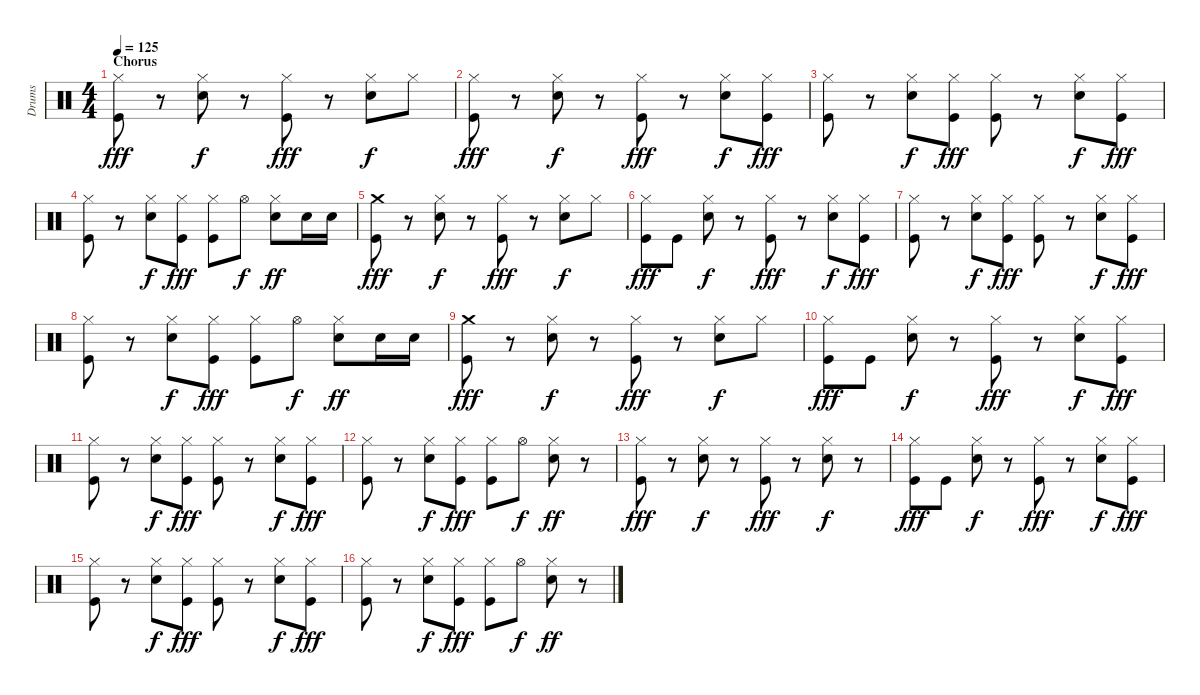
\track ("Drums" "Drums") {instrument percussion}
\staff {score}
\articulation defaults
\ts (4 4)
\section ("" "Chorus")
\tempo 125
\clef neutral
\ks c
("Hi-Hat (closed)" "Kick (hit)").8{dy fff} r.8 ("Hi-Hat (closed)" "Snare (hit) 2").8{dy f} r.8 ("Hi-Hat (closed)" "Kick (hit)").8{dy fff} r.8 ("Hi-Hat (closed)" "Snare (hit) 2").8{dy f} "Hi-Hat (closed)".8 |
("Hi-Hat (closed)" "Kick (hit)").8{dy fff} r.8 ("Hi-Hat (closed)" "Snare (hit) 2").8{dy f} r.8 ("Hi-Hat (closed)" "Kick (hit)").8{dy fff} r.8 ("Hi-Hat (closed)" "Snare (hit) 2").8{dy f} ("Hi-Hat (closed)" "Kick (hit)").8{dy fff} |
("Hi-Hat (closed)" "Kick (hit)").8 r.8 ("Hi-Hat (closed)" "Snare (hit) 2").8{dy f} ("Hi-Hat (closed)" "Kick (hit)").8{dy fff} ("Hi-Hat (closed)" "Kick (hit)").8 r.8 ("Hi-Hat (closed)" "Snare (hit) 2").8{dy f} ("Hi-Hat (closed)" "Kick (hit)").8{dy fff} |
("Hi-Hat (closed)" "Kick (hit)").8 r.8 ("Hi-Hat (closed)" "Snare (hit) 2").8{dy f} ("Hi-Hat (closed)" "Kick (hit)").8{dy fff} ("Hi-Hat (closed)" "Kick (hit)").8 "Hi-Hat (open)".8{dy f} ("Hi-Hat (closed)" "Snare (hit) 2").8{dy ff} "Snare (hit) 2".16 "Snare (hit) 2".16 |
("Crash medium (hit)" "Kick (hit)").8{dy fff} r.8 ("Hi-Hat (closed)" "Snare (hit) 2").8{dy f} r.8 ("Hi-Hat (closed)" "Kick (hit)").8{dy fff} r.8 ("Hi-Hat (closed)" "Snare (hit) 2").8{dy f} "Hi-Hat (closed)".8 |
("Hi-Hat (closed)" "Kick (hit)").8{dy fff} "Kick (hit)".8 ("Hi-Hat (closed)" "Snare (hit) 2").8{dy f} r.8 ("Hi-Hat (closed)" "Kick (hit)").8{dy fff} r.8 ("Hi-Hat (closed)" "Snare (hit) 2").8{dy f} ("Hi-Hat (closed)" "Kick (hit)").8{dy fff} |
("Hi-Hat (closed)" "Kick (hit)").8 r.8 ("Hi-Hat (closed)" "Snare (hit) 2").8{dy f} ("Hi-Hat (closed)" "Kick (hit)").8{dy fff} ("Hi-Hat (closed)" "Kick (hit)").8 r.8 ("Hi-Hat (closed)" "Snare (hit) 2").8{dy f} ("Hi-Hat (closed)" "Kick (hit)").8{dy fff} |
("Hi-Hat (closed)" "Kick (hit)").8 r.8 ("Hi-Hat (closed)" "Snare (hit) 2").8{dy f} ("Hi-Hat (closed)" "Kick (hit)").8{dy fff} ("Hi-Hat (closed)" "Kick (hit)").8 "Hi-Hat (open)".8{dy f} ("Hi-Hat (closed)" "Snare (hit) 2").8{dy ff} "Snare (hit) 2".16 "Snare (hit) 2".16 |
("Crash medium (hit)" "Kick (hit)").8{dy fff} r.8 ("Hi-Hat (closed)" "Snare (hit) 2").8{dy f} r.8 ("Hi-Hat (closed)" "Kick (hit)").8{dy fff} r.8 ("Hi-Hat (closed)" "Snare (hit) 2").8{dy f} "Hi-Hat (closed)".8 |
("Hi-Hat (closed)" "Kick (hit)").8{dy fff} "Kick (hit)".8 ("Hi-Hat (closed)" "Snare (hit) 2").8{dy f} r.8 ("Hi-Hat (closed)" "Kick (hit)").8{dy fff} r.8 ("Hi-Hat (closed)" "Snare (hit) 2").8{dy f} ("Hi-Hat (closed)" "Kick (hit)").8{dy fff} |
("Hi-Hat (closed)" "Kick (hit)").8 r.8 ("Hi-Hat (closed)" "Snare (hit) 2").8{dy f} ("Hi-Hat (closed)" "Kick (hit)").8{dy fff} ("Hi-Hat (closed)" "Kick (hit)").8 r.8 ("Hi-Hat (closed)" "Snare (hit) 2").8{dy f} ("Hi-Hat (closed)" "Kick (hit)").8{dy fff} |
("Hi-Hat (closed)" "Kick (hit)").8 r.8 ("Hi-Hat (closed)" "Snare (hit) 2").8{dy f} ("Hi-Hat (closed)" "Kick (hit)").8{dy fff} ("Hi-Hat (closed)" "Kick (hit)").8 "Hi-Hat (open)".8{dy f} ("Hi-Hat (closed)" "Snare (hit) 2").8{dy ff} r.8 |
("Hi-Hat (closed)" "Kick (hit)").8{dy fff} r.8 ("Hi-Hat (closed)" "Snare (hit) 2").8{dy f} r.8 ("Hi-Hat (closed)" "Kick (hit)").8{dy fff} r.8 ("Hi-Hat (closed)" "Snare (hit) 2").8{dy f} r.8 |
("Hi-Hat (closed)" "Kick (hit)").8{dy fff} "Kick (hit)".8 ("Hi-Hat (closed)" "Snare (hit) 2").8{dy f} r.8 ("Hi-Hat (closed)" "Kick (hit)").8{dy fff} r.8 ("Hi-Hat (closed)" "Snare (hit) 2").8{dy f} ("Hi-Hat (closed)" "Kick (hit)").8{dy fff} |
("Hi-Hat (closed)" "Kick (hit)").8 r.8 ("Hi-Hat (closed)" "Snare (hit) 2").8{dy f} ("Hi-Hat (closed)" "Kick (hit)").8{dy fff} ("Hi-Hat (closed)" "Kick (hit)").8 r.8 ("Hi-Hat (closed)" "Snare (hit) 2").8{dy f} ("Hi-Hat (closed)" "Kick (hit)").8{dy fff} |
("Hi-Hat (closed)" "Kick (hit)").8 r.8 ("Hi-Hat (closed)" "Snare (hit) 2").8{dy f} ("Hi-Hat (closed)" "Kick (hit)").8{dy fff} ("Hi-Hat (closed)" "Kick (hit)").8 "Hi-Hat (open)".8{dy f} ("Hi-Hat (closed)" "Snare (hit) 2").8{dy ff} r.8
